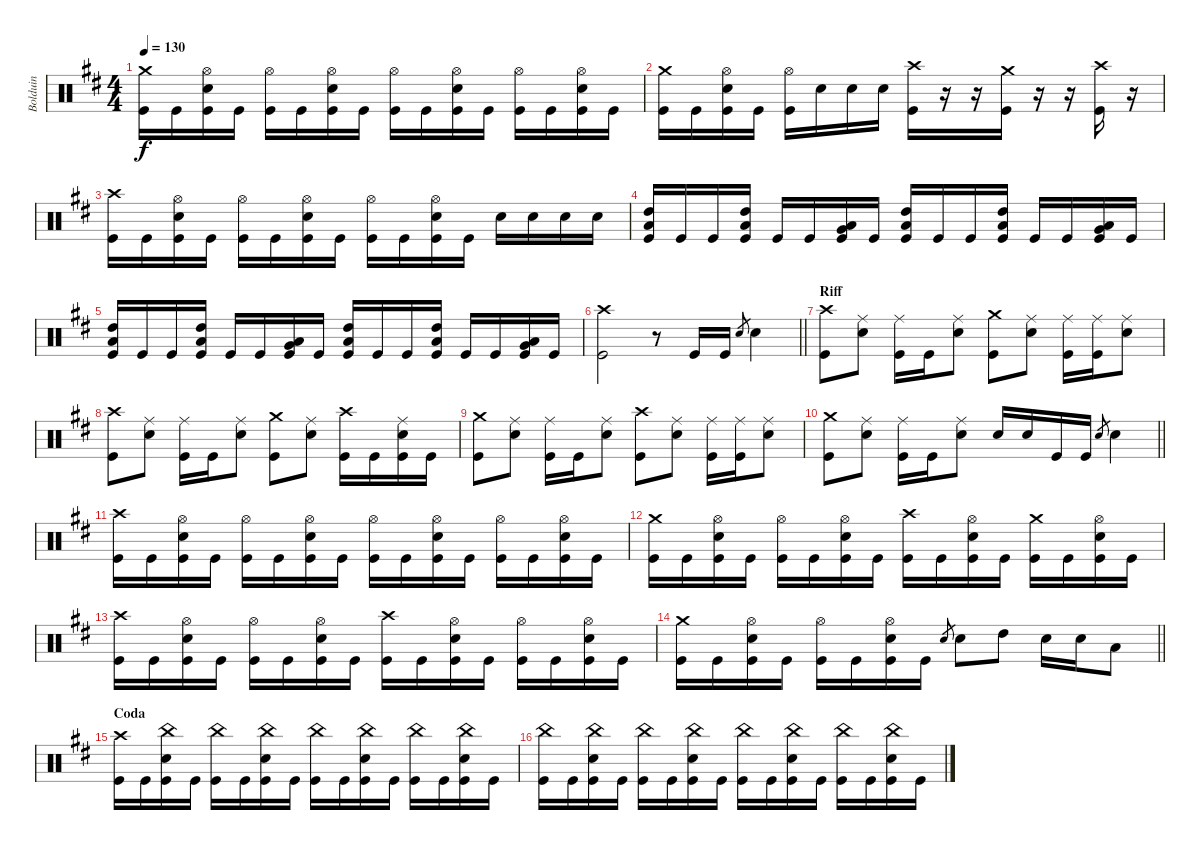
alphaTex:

\track ("Bolduin" "Bolduin") {instrument percussion}
\staff {score}
\articulation defaults
\ts (4 4)
\tempo 130
\clef neutral
\ks bminor
("Kick (hit)" "Crash medium (hit)").16{dy f} "Kick (hit)".16 ("Kick (hit)" "Hi-Hat (open)" "Snare (hit) 2").16 "Kick (hit)".16 ("Kick (hit)" "Hi-Hat (open)").16 "Kick (hit)".16 ("Kick (hit)" "Hi-Hat (open)" "Snare (hit) 2").16 "Kick (hit)".16 ("Kick (hit)" "Hi-Hat (open)").16 "Kick (hit)".16 ("Kick (hit)" "Hi-Hat (open)" "Snare (hit) 2").16 "Kick (hit)".16 ("Kick (hit)" "Hi-Hat (open)").16 "Kick (hit)".16 ("Kick (hit)" "Hi-Hat (open)" "Snare (hit) 2").16 "Kick (hit)".16 |
("Crash medium (hit)" "Kick (hit)").16 "Kick (hit)".16 ("Hi-Hat (open)" "Kick (hit)" "Snare (hit) 2").16 "Kick (hit)".16 ("Hi-Hat (open)" "Kick (hit)").16 "Snare (hit) 2".16 "Snare (hit) 2".16 "Snare (hit) 2".16 ("Kick (hit)" "Crash high (hit)").16 r.16 r.16 ("Crash medium (hit)" "Kick (hit)").16 r.16 r.16 ("Kick (hit)" "Crash high (hit)").16 r.16 |
("Kick (hit)" "Crash high (hit)").16 "Kick (hit)".16 ("Kick (hit)" "Hi-Hat (open)" "Snare (hit) 2").16 "Kick (hit)".16 ("Kick (hit)" "Hi-Hat (open)").16 "Kick (hit)".16 ("Kick (hit)" "Hi-Hat (open)" "Snare (hit) 2").16 "Kick (hit)".16 ("Kick (hit)" "Hi-Hat (open)").16 "Kick (hit)".16 ("Kick (hit)" "Hi-Hat (open)" "Snare (hit) 2").16 "Kick (hit)".16 "Snare (hit) 2".16 "Snare (hit) 2".16 "Snare (hit) 2".16 "Snare (hit) 2".16 |
("High Tom (hit)" "Kick (hit)" "Low Tom (hit)").16 "Kick (hit)".16 "Kick (hit)".16 ("High Tom (hit)" "Kick (hit)" "Low Tom (hit)").16 "Kick (hit)".16 "Kick (hit)".16 ("Low Tom (hit)" "Kick (hit)" "Very Low Tom (hit)").16 "Kick (hit)".16 ("High Tom (hit)" "Kick (hit)" "Low Tom (hit)").16 "Kick (hit)".16 "Kick (hit)".16 ("High Tom (hit)" "Kick (hit)" "Low Tom (hit)").16 "Kick (hit)".16 "Kick (hit)".16 ("Low Tom (hit)" "Kick (hit)" "Very Low Tom (hit)").16 "Kick (hit)".16 |
("High Tom (hit)" "Kick (hit)" "Low Tom (hit)").16 "Kick (hit)".16 "Kick (hit)".16 ("High Tom (hit)" "Kick (hit)" "Low Tom (hit)").16 "Kick (hit)".16 "Kick (hit)".16 ("Low Tom (hit)" "Kick (hit)" "Very Low Tom (hit)").16 "Kick (hit)".16 ("High Tom (hit)" "Kick (hit)" "Low Tom (hit)").16 "Kick (hit)".16 "Kick (hit)".16 ("High Tom (hit)" "Kick (hit)" "Low Tom (hit)").16 "Kick (hit)".16 "Kick (hit)".16 ("Low Tom (hit)" "Kick (hit)" "Very Low Tom (hit)").16 "Kick (hit)".16 |
\barLineRight lightlight
("Kick (hit)" "Crash high (hit)").2 r.8 "Kick (hit)".16 "Kick (hit)".16 "Snare (hit) 2".8{gr} "Snare (hit) 2".4 |
\section ("" "Riff")
("Crash high (hit)" "Kick (hit)").8 ("Ride (middle)" "Snare (hit) 2").8 ("Ride (middle)" "Kick (hit)").16 "Kick (hit)".16 ("Ride (middle)" "Snare (hit) 2").8 ("Crash medium (hit)" "Kick (hit)").8 ("Ride (middle)" "Snare (hit) 2").8 ("Ride (middle)" "Kick (hit)").16 ("Ride (middle)" "Kick (hit)").16 ("Ride (middle)" "Snare (hit) 2").8 |
("Crash high (hit)" "Kick (hit)").8 ("Ride (middle)" "Snare (hit) 2").8 ("Ride (middle)" "Kick (hit)").16 "Kick (hit)".16 ("Ride (middle)" "Snare (hit) 2").8 ("Crash medium (hit)" "Kick (hit)").8 ("Ride (middle)" "Snare (hit) 2").8 ("Crash high (hit)" "Kick (hit)").16 "Kick (hit)".16 ("Ride (middle)" "Snare (hit) 2" "Kick (hit)").16 "Kick (hit)".16 |
("Crash medium (hit)" "Kick (hit)").8 ("Ride (middle)" "Snare (hit) 2").8 ("Ride (middle)" "Kick (hit)").16 "Kick (hit)".16 ("Ride (middle)" "Snare (hit) 2").8 ("Crash high (hit)" "Kick (hit)").8 ("Ride (middle)" "Snare (hit) 2").8 ("Ride (middle)" "Kick (hit)").16 ("Ride (middle)" "Kick (hit)").16 ("Ride (middle)" "Snare (hit) 2").8 |
\barLineRight lightlight
("Crash medium (hit)" "Kick (hit)").8 ("Ride (middle)" "Snare (hit) 2").8 ("Ride (middle)" "Kick (hit)").16 "Kick (hit)".16 ("Ride (middle)" "Snare (hit) 2").8 "Snare (hit) 2".16 "Snare (hit) 2".16 "Kick (hit)".16 "Kick (hit)".16 "Snare (hit) 2".8{gr} "Snare (hit) 2".4 |
("Kick (hit)" "Crash high (hit)").16 "Kick (hit)".16 ("Kick (hit)" "Hi-Hat (open)" "Snare (hit) 2").16 "Kick (hit)".16 ("Kick (hit)" "Hi-Hat (open)").16 "Kick (hit)".16 ("Kick (hit)" "Hi-Hat (open)" "Snare (hit) 2").16 "Kick (hit)".16 ("Kick (hit)" "Hi-Hat (open)").16 "Kick (hit)".16 ("Kick (hit)" "Hi-Hat (open)" "Snare (hit) 2").16 "Kick (hit)".16 ("Kick (hit)" "Hi-Hat (open)").16 "Kick (hit)".16 ("Kick (hit)" "Hi-Hat (open)" "Snare (hit) 2").16 "Kick (hit)".16 |
("Kick (hit)" "Crash medium (hit)").16 "Kick (hit)".16 ("Kick (hit)" "Hi-Hat (open)" "Snare (hit) 2").16 "Kick (hit)".16 ("Kick (hit)" "Hi-Hat (open)").16 "Kick (hit)".16 ("Kick (hit)" "Hi-Hat (open)" "Snare (hit) 2").16 "Kick (hit)".16 ("Kick (hit)" "Crash high (hit)").16 "Kick (hit)".16 ("Kick (hit)" "Hi-Hat (open)" "Snare (hit) 2").16 "Kick (hit)".16 ("Kick (hit)" "Crash medium (hit)").16 "Kick (hit)".16 ("Kick (hit)" "Hi-Hat (open)" "Snare (hit) 2").16 "Kick (hit)".16 |
("Kick (hit)" "Crash high (hit)").16 "Kick (hit)".16 ("Kick (hit)" "Hi-Hat (open)" "Snare (hit) 2").16 "Kick (hit)".16 ("Kick (hit)" "Hi-Hat (open)").16 "Kick (hit)".16 ("Kick (hit)" "Hi-Hat (open)" "Snare (hit) 2").16 "Kick (hit)".16 ("Kick (hit)" "Crash high (hit)").16 "Kick (hit)".16 ("Kick (hit)" "Hi-Hat (open)" "Snare (hit) 2").16 "Kick (hit)".16 ("Kick (hit)" "Hi-Hat (open)").16 "Kick (hit)".16 ("Kick (hit)" "Hi-Hat (open)" "Snare (hit) 2").16 "Kick (hit)".16 |
\barLineRight lightlight
("Kick (hit)" "Crash medium (hit)").16 "Kick (hit)".16 ("Kick (hit)" "Hi-Hat (open)" "Snare (hit) 2").16 "Kick (hit)".16 ("Kick (hit)" "Hi-Hat (open)").16 "Kick (hit)".16 ("Kick (hit)" "Hi-Hat (open)" "Snare (hit) 2").16 "Kick (hit)".16 "Snare (hit) 2".8{gr} "Snare (hit) 2".8 "High Tom (hit)".8 "Snare (hit) 2".16 "Snare (hit) 2".16 "Low Tom (hit)".8 |
\section ("" "Coda")
("Kick (hit)" "Crash high (hit)").16 "Kick (hit)".16 ("Kick (hit)" "China (hit)" "Snare (hit) 2").16 "Kick (hit)".16 ("Kick (hit)" "China (hit)").16 "Kick (hit)".16 ("Kick (hit)" "China (hit)" "Snare (hit) 2").16 "Kick (hit)".16 ("Kick (hit)" "China (hit)").16 "Kick (hit)".16 ("Kick (hit)" "China (hit)" "Snare (hit) 2").16 "Kick (hit)".16 ("Kick (hit)" "China (hit)").16 "Kick (hit)".16 ("Kick (hit)" "China (hit)" "Snare (hit) 2").16 "Kick (hit)".16 |
("Kick (hit)" "China (hit)").16 "Kick (hit)".16 ("Kick (hit)" "China (hit)" "Snare (hit) 2").16 "Kick (hit)".16 ("Kick (hit)" "China (hit)").16 "Kick (hit)".16 ("Kick (hit)" "China (hit)" "Snare (hit) 2").16 "Kick (hit)".16 ("Kick (hit)" "China (hit)").16 "Kick (hit)".16 ("Kick (hit)" "China (hit)" "Snare (hit) 2").16 "Kick (hit)".16 ("Kick (hit)" "China (hit)").16 "Kick (hit)".16 ("Kick (hit)" "China (hit)" "Snare (hit) 2").16 "Kick (hit)".16
